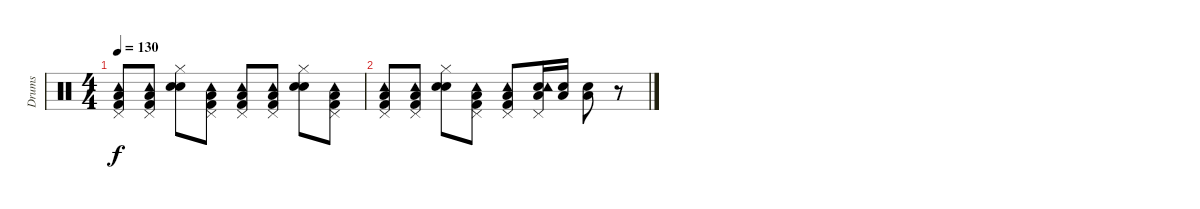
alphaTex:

\track ("Drums" "Drums") {instrument percussion}
\staff {score}
\articulation defaults
\ts (4 4)
\tempo 130
\clef neutral
\ks c
("Kick (hit) 2" "Low Floor Tom (hit)" "Pedal Hi-Hat (hit)" "Tambourine (hit)").8{dy f volume 13} ("Kick (hit) 2" "Low Floor Tom (hit)" "Pedal Hi-Hat (hit)" "Tambourine (hit)").8 ("Electric Snare (hit)" "Hand Clap (hit)" "Hi-Hat (closed)").8 ("Kick (hit) 2" "Low Floor Tom (hit)" "Pedal Hi-Hat (hit)" "Tambourine (hit)").8 ("Kick (hit) 2" "Low Floor Tom (hit)" "Pedal Hi-Hat (hit)" "Tambourine (hit)").8 ("Kick (hit) 2" "Low Floor Tom (hit)" "Pedal Hi-Hat (hit)" "Tambourine (hit)").8 ("Electric Snare (hit)" "Hand Clap (hit)" "Hi-Hat (closed)").8 ("Kick (hit) 2" "Low Floor Tom (hit)" "Pedal Hi-Hat (hit)" "Tambourine (hit)").8 |
("Kick (hit) 2" "Low Floor Tom (hit)" "Pedal Hi-Hat (hit)" "Tambourine (hit)").8{volume 13} ("Kick (hit) 2" "Low Floor Tom (hit)" "Pedal Hi-Hat (hit)" "Tambourine (hit)").8 ("Electric Snare (hit)" "Hand Clap (hit)" "Hi-Hat (closed)").8 ("Kick (hit) 2" "Low Floor Tom (hit)" "Pedal Hi-Hat (hit)" "Tambourine (hit)").8 ("Kick (hit) 2" "Low Floor Tom (hit)" "Pedal Hi-Hat (hit)" "Tambourine (hit)").8 ("Electric Snare (hit)" "Low Floor Tom (hit)" "Pedal Hi-Hat (hit)" "Tambourine (hit)").16 ("Electric Snare (hit)" "Low Floor Tom (hit)").16 ("Electric Snare (hit)" "Low Floor Tom (hit)").8 r.8
